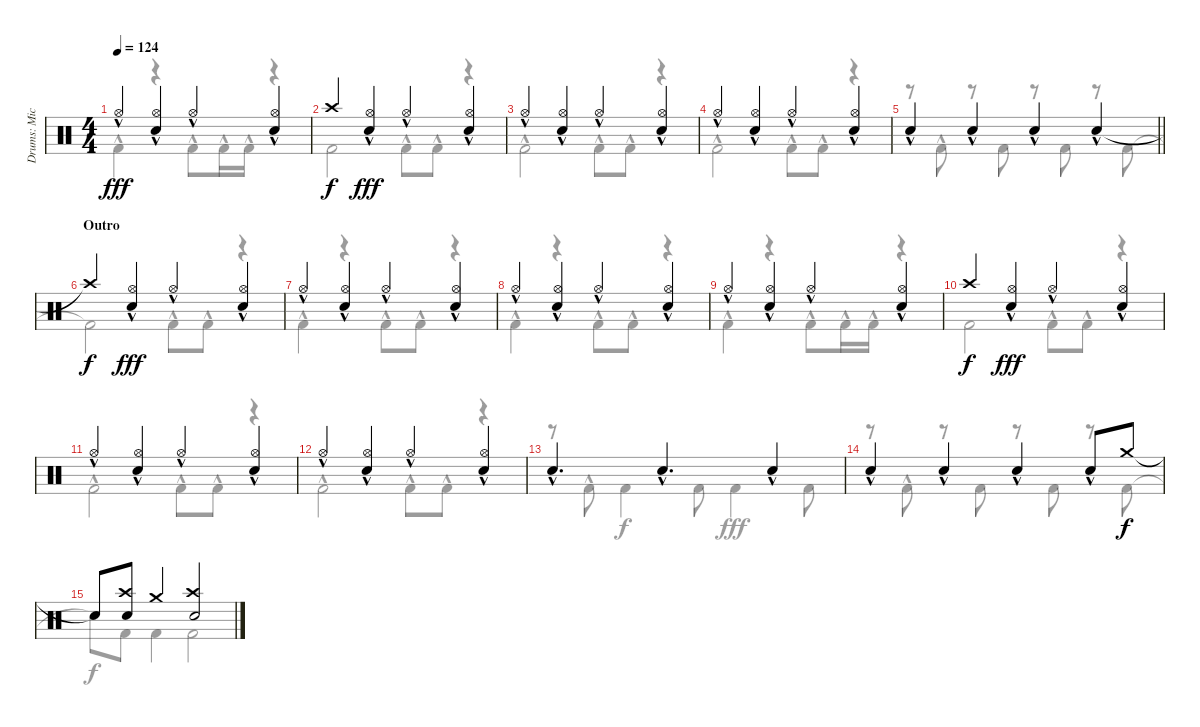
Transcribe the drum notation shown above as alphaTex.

\track ("Drums: Mick" "Drums: Mic") {instrument percussion}
\staff {score}
\articulation defaults
\voice
\ts (4 4)
\tempo 124
\clef neutral
\ks c "Hi-Hat (open)"{hac}.4{dy fff}
("Hi-Hat (open)"{hac} "Snare (hit) 2"{hac}).4 "Hi-Hat (open)"{hac}.4 ("Hi-Hat (open)"{hac} "Snare (hit) 2"{hac}).4 |
"Crash high (hit)".4{dy f} ("Hi-Hat (open)"{hac} "Snare (hit) 2"{hac}).4{dy fff} "Hi-Hat (open)"{hac}.4 ("Hi-Hat (open)"{hac} "Snare (hit) 2"{hac}).4 |
"Hi-Hat (open)"{hac}.4 ("Hi-Hat (open)"{hac} "Snare (hit) 2"{hac}).4 "Hi-Hat (open)"{hac}.4 ("Hi-Hat (open)"{hac} "Snare (hit) 2"{hac}).4 |
"Hi-Hat (open)"{hac}.4 ("Hi-Hat (open)"{hac} "Snare (hit) 2"{hac}).4 "Hi-Hat (open)"{hac}.4 ("Hi-Hat (open)"{hac} "Snare (hit) 2"{hac}).4 |
\barLineRight lightlight "Snare (hit) 2"{hac}.4 "Snare (hit) 2"{hac}.4 "Snare (hit) 2"{hac}.4 "Snare (hit) 2"{hac}.4
|
\section ("" "Outro")
"Crash high (hit)"{t}.4{dy f} ("Hi-Hat (open)"{hac} "Snare (hit) 2"{hac}).4{dy fff} "Hi-Hat (open)"{hac}.4 ("Hi-Hat (open)"{hac} "Snare (hit) 2"{hac}).4 |
"Hi-Hat (open)"{hac}.4 ("Hi-Hat (open)"{hac} "Snare (hit) 2"{hac}).4 "Hi-Hat (open)"{hac}.4 ("Hi-Hat (open)"{hac} "Snare (hit) 2"{hac}).4 |
"Hi-Hat (open)"{hac}.4 ("Hi-Hat (open)"{hac} "Snare (hit) 2"{hac}).4 "Hi-Hat (open)"{hac}.4 ("Hi-Hat (open)"{hac} "Snare (hit) 2"{hac}).4 |
"Hi-Hat (open)"{hac}.4 ("Hi-Hat (open)"{hac} "Snare (hit) 2"{hac}).4 "Hi-Hat (open)"{hac}.4 ("Hi-Hat (open)"{hac} "Snare (hit) 2"{hac}).4 |
"Crash high (hit)".4{dy f} ("Hi-Hat (open)"{hac} "Snare (hit) 2"{hac}).4{dy fff} "Hi-Hat (open)"{hac}.4 ("Hi-Hat (open)"{hac} "Snare (hit) 2"{hac}).4 |
"Hi-Hat (open)"{hac}.4 ("Hi-Hat (open)"{hac} "Snare (hit) 2"{hac}).4 "Hi-Hat (open)"{hac}.4 ("Hi-Hat (open)"{hac} "Snare (hit) 2"{hac}).4 |
"Hi-Hat (open)"{hac}.4 ("Hi-Hat (open)"{hac} "Snare (hit) 2"{hac}).4 "Hi-Hat (open)"{hac}.4 ("Hi-Hat (open)"{hac} "Snare (hit) 2"{hac}).4 |
"Snare (hit) 2"{hac}.4{d} "Snare (hit) 2"{hac}.4{d} "Snare (hit) 2"{hac}.4 |
"Snare (hit) 2"{hac}.4 "Snare (hit) 2"{hac}.4 "Snare (hit) 2"{hac}.4 "Snare (hit) 2"{hac}.8 "Crash medium (hit)".8{dy f} |
"Snare (hit)"{t}.8 ("Crash high (hit)" "Snare (hit) 2").8 "Crash medium (hit)".4 ("Crash high (hit)" "Snare (hit) 2").2
\voice
\clef neutral
\ottava regular
\simile none
\ks c "Kick (hit) 2"{hac}.4{dy fff}
r.4 "Kick (hit) 2"{hac}.8 "Kick (hit) 2"{hac}.16 "Kick (hit) 2"{hac}.16 r.4 |
"Kick (hit) 2".2 "Kick (hit) 2"{hac}.8 "Kick (hit) 2"{hac}.8 r.4 |
"Kick (hit) 2"{hac}.2 "Kick (hit) 2"{hac}.8 "Kick (hit) 2"{hac}.8 r.4 |
"Kick (hit) 2"{hac}.2 "Kick (hit) 2"{hac}.8 "Kick (hit) 2"{hac}.8 r.4 |
\barLineRight lightlight
r.8 "Kick (hit) 2"{hac}.8 r.8 "Kick (hit) 2".8 r.8 "Kick (hit) 2".8 r.8 "Kick (hit) 2".8 |
"Kick (hit) 2"{t}.2 "Kick (hit) 2"{hac}.8 "Kick (hit) 2"{hac}.8 r.4 |
"Kick (hit) 2"{hac}.4 r.4 "Kick (hit) 2"{hac}.8 "Kick (hit) 2"{hac}.8 r.4 |
"Kick (hit) 2"{hac}.4 r.4 "Kick (hit) 2"{hac}.8 "Kick (hit) 2"{hac}.8 r.4 |
"Kick (hit) 2"{hac}.4 r.4 "Kick (hit) 2"{hac}.8 "Kick (hit) 2"{hac}.16 "Kick (hit) 2"{hac}.16 r.4 |
"Kick (hit) 2".2 "Kick (hit) 2"{hac}.8 "Kick (hit) 2"{hac}.8 r.4 |
"Kick (hit) 2"{hac}.2 "Kick (hit) 2"{hac}.8 "Kick (hit) 2"{hac}.8 r.4 |
"Kick (hit) 2"{hac}.2 "Kick (hit) 2"{hac}.8 "Kick (hit) 2"{hac}.8 r.4 |
r.8 "Kick (hit) 2"{hac}.8 "Kick (hit) 2".4{dy f} "Kick (hit) 2".8 "Kick (hit) 2".4{dy fff} "Kick (hit) 2".8 |
r.8 "Kick (hit) 2"{hac}.8 r.8 "Kick (hit) 2".8 r.8 "Kick (hit) 2".8 r.8 "Kick (hit) 2".8 |
"Snare (hit)"{t}.8{dy f} "Kick (hit) 2".8 "Kick (hit) 2".4 "Kick (hit) 2".2
